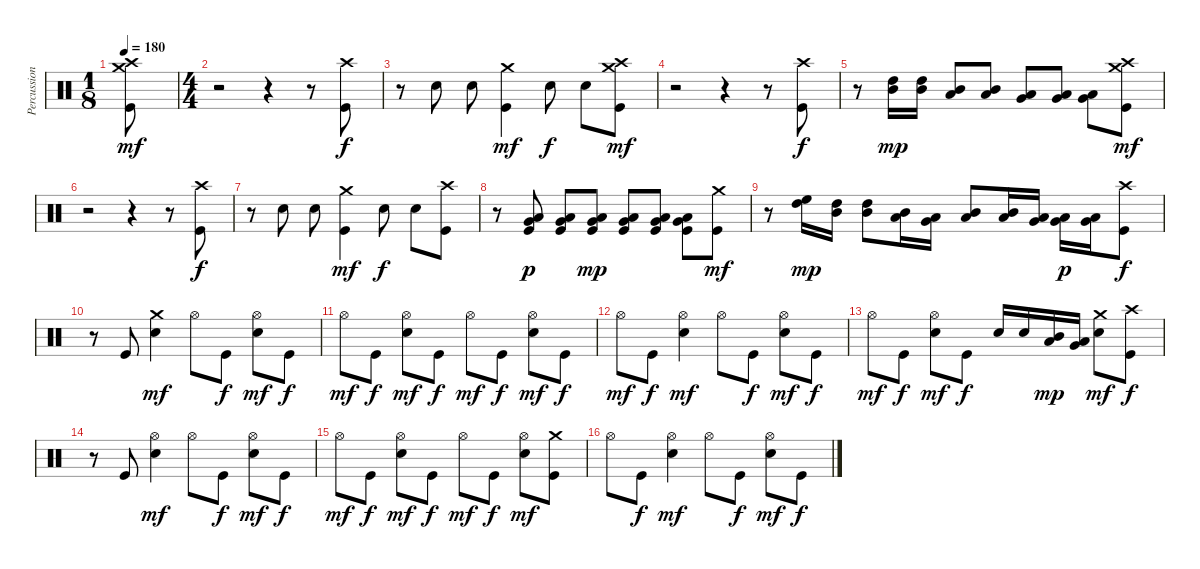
\track ("Percussions" "Percussion") {instrument percussion}
\staff {score}
\articulation defaults
\ts (1 8)
\tempo 180
\clef neutral
\ks c
("Kick (hit)" "Crash high (hit)" "Crash medium (hit)").8{dy mf} |
\ts (4 4)
r.2 r.4 r.8 ("Kick (hit)" "Crash high (hit)").8{dy f} |
r.8 "Electric Snare (hit)".8 "Electric Snare (hit)".8 ("Kick (hit)" "Crash medium (hit)").4{dy mf} "Electric Snare (hit)".8{dy f} "Electric Snare (hit)".8 ("Kick (hit)" "Crash high (hit)" "Crash medium (hit)").8{dy mf} |
r.2 r.4 r.8 ("Kick (hit)" "Crash high (hit)").8{dy f} |
r.8 ("Mid Tom (hit)" "High Tom (hit)").16{dy mp} ("Mid Tom (hit)" "High Tom (hit)").16 ("Low Tom (hit)" "Mid Tom (hit)").8 ("Low Tom (hit)" "Mid Tom (hit)").8 ("Very Low Tom (hit)" "Low Tom (hit)").8 ("Very Low Tom (hit)" "Low Tom (hit)").8 ("Low Floor Tom (hit)" "Very Low Tom (hit)").8 ("Kick (hit)" "Crash high (hit)" "Crash medium (hit)").8{dy mf} |
r.2 r.4 r.8 ("Kick (hit)" "Crash high (hit)").8{dy f} |
r.8 "Electric Snare (hit)".8 "Electric Snare (hit)".8 ("Kick (hit)" "Crash medium (hit)").4{dy mf} "Electric Snare (hit)".8{dy f} "Electric Snare (hit)".8 ("Kick (hit)" "Crash high (hit)").8 |
r.8 ("Kick (hit)" "Very Low Tom (hit)" "Low Floor Tom (hit)").8{dy p} ("Kick (hit)" "Very Low Tom (hit)" "Low Floor Tom (hit)").8 ("Kick (hit)" "Very Low Tom (hit)" "Low Floor Tom (hit)").8{dy mp} ("Kick (hit)" "Very Low Tom (hit)" "Low Floor Tom (hit)").8 ("Kick (hit)" "Very Low Tom (hit)" "Low Floor Tom (hit)").8 ("Kick (hit)" "Very Low Tom (hit)" "Low Floor Tom (hit)").8 ("Kick (hit)" "Crash medium (hit)").8{dy mf} |
r.8 ("High Tom (hit)" "High Floor Tom (hit)").16{dy mp} ("Mid Tom (hit)" "High Tom (hit)").16 ("Mid Tom (hit)" "High Tom (hit)").8 ("Low Tom (hit)" "Mid Tom (hit)").16 ("Very Low Tom (hit)" "Low Tom (hit)").16 ("Low Tom (hit)" "Mid Tom (hit)").8 ("Low Tom (hit)" "Mid Tom (hit)").16 ("Very Low Tom (hit)" "Low Tom (hit)").16 ("Very Low Tom (hit)" "Low Tom (hit)").16{dy p} ("Low Floor Tom (hit)" "Very Low Tom (hit)").16 ("Kick (hit)" "Crash high (hit)").8{dy f} |
r.8 "Kick (hit)".8 ("Electric Snare (hit)" "Crash medium (hit)").4{dy mf} "Hi-Hat (open)".8 "Kick (hit)".8{dy f} ("Electric Snare (hit)" "Hi-Hat (open)").8{dy mf} "Kick (hit)".8{dy f} |
"Hi-Hat (open)".8{dy mf} "Kick (hit)".8{dy f} ("Electric Snare (hit)" "Hi-Hat (open)").8{dy mf} "Kick (hit)".8{dy f} "Hi-Hat (open)".8{dy mf} "Kick (hit)".8{dy f} ("Electric Snare (hit)" "Hi-Hat (open)").8{dy mf} "Kick (hit)".8{dy f} |
"Hi-Hat (open)".8{dy mf} "Kick (hit)".8{dy f} ("Electric Snare (hit)" "Hi-Hat (open)").4{dy mf} "Hi-Hat (open)".8 "Kick (hit)".8{dy f} ("Electric Snare (hit)" "Hi-Hat (open)").8{dy mf} "Kick (hit)".8{dy f} |
"Hi-Hat (open)".8{dy mf} "Kick (hit)".8{dy f} ("Electric Snare (hit)" "Hi-Hat (open)").8{dy mf} "Kick (hit)".8{dy f} "Electric Snare (hit)".16 "Electric Snare (hit)".16 ("Low Tom (hit)" "Mid Tom (hit)").16{dy mp} ("Very Low Tom (hit)" "Low Tom (hit)").16 ("Electric Snare (hit)" "Crash medium (hit)").8{dy mf} ("Kick (hit)" "Crash high (hit)").8{dy f} |
r.8 "Kick (hit)".8 ("Electric Snare (hit)" "Hi-Hat (open)").4{dy mf} "Hi-Hat (open)".8 "Kick (hit)".8{dy f} ("Electric Snare (hit)" "Hi-Hat (open)").8{dy mf} "Kick (hit)".8{dy f} |
"Hi-Hat (open)".8{dy mf} "Kick (hit)".8{dy f} ("Electric Snare (hit)" "Hi-Hat (open)").8{dy mf} "Kick (hit)".8{dy f} "Hi-Hat (open)".8{dy mf} "Kick (hit)".8{dy f} ("Electric Snare (hit)" "Hi-Hat (open)").8{dy mf} ("Kick (hit)" "Crash medium (hit)").8 |
"Hi-Hat (open)".8 "Kick (hit)".8{dy f} ("Electric Snare (hit)" "Hi-Hat (open)").4{dy mf} "Hi-Hat (open)".8 "Kick (hit)".8{dy f} ("Electric Snare (hit)" "Hi-Hat (open)").8{dy mf} "Kick (hit)".8{dy f}
